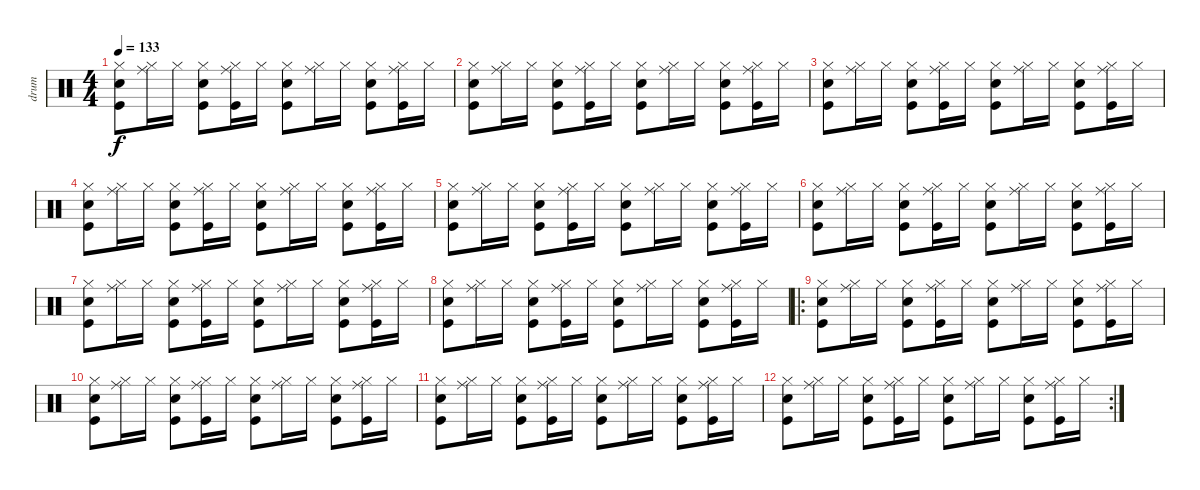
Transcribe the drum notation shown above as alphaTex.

\track ("drum" "drum") {instrument percussion}
\staff {score}
\articulation defaults
\ts (4 4)
\tempo 133
\clef neutral
\ks c
("Hi-Hat (closed)" "Snare (hit) 2" "Kick (hit)").8{dy f} ("Hi-Hat (closed)" "Ride (middle)").16 "Hi-Hat (closed)".16 ("Hi-Hat (closed)" "Snare (hit) 2" "Kick (hit)").8 ("Hi-Hat (closed)" "Ride (middle)" "Kick (hit)").16 "Hi-Hat (closed)".16 ("Hi-Hat (closed)" "Snare (hit) 2" "Kick (hit)").8 ("Hi-Hat (closed)" "Ride (middle)").16 "Hi-Hat (closed)".16 ("Hi-Hat (closed)" "Snare (hit) 2" "Kick (hit)").8 ("Hi-Hat (closed)" "Ride (middle)" "Kick (hit)").16 "Hi-Hat (closed)".16 |
("Hi-Hat (closed)" "Snare (hit) 2" "Kick (hit)").8 ("Hi-Hat (closed)" "Ride (middle)").16 "Hi-Hat (closed)".16 ("Hi-Hat (closed)" "Snare (hit) 2" "Kick (hit)").8 ("Hi-Hat (closed)" "Ride (middle)" "Kick (hit)").16 "Hi-Hat (closed)".16 ("Hi-Hat (closed)" "Snare (hit) 2" "Kick (hit)").8 ("Hi-Hat (closed)" "Ride (middle)").16 "Hi-Hat (closed)".16 ("Hi-Hat (closed)" "Snare (hit) 2" "Kick (hit)").8 ("Hi-Hat (closed)" "Ride (middle)" "Kick (hit)").16 "Hi-Hat (closed)".16 |
("Hi-Hat (closed)" "Snare (hit) 2" "Kick (hit)").8 ("Hi-Hat (closed)" "Ride (middle)").16 "Hi-Hat (closed)".16 ("Hi-Hat (closed)" "Snare (hit) 2" "Kick (hit)").8 ("Hi-Hat (closed)" "Ride (middle)" "Kick (hit)").16 "Hi-Hat (closed)".16 ("Hi-Hat (closed)" "Snare (hit) 2" "Kick (hit)").8 ("Hi-Hat (closed)" "Ride (middle)").16 "Hi-Hat (closed)".16 ("Hi-Hat (closed)" "Snare (hit) 2" "Kick (hit)").8 ("Hi-Hat (closed)" "Ride (middle)" "Kick (hit)").16 "Hi-Hat (closed)".16 |
("Hi-Hat (closed)" "Snare (hit) 2" "Kick (hit)").8 ("Hi-Hat (closed)" "Ride (middle)").16 "Hi-Hat (closed)".16 ("Hi-Hat (closed)" "Snare (hit) 2" "Kick (hit)").8 ("Hi-Hat (closed)" "Ride (middle)" "Kick (hit)").16 "Hi-Hat (closed)".16 ("Hi-Hat (closed)" "Snare (hit) 2" "Kick (hit)").8 ("Hi-Hat (closed)" "Ride (middle)").16 "Hi-Hat (closed)".16 ("Hi-Hat (closed)" "Snare (hit) 2" "Kick (hit)").8 ("Hi-Hat (closed)" "Ride (middle)" "Kick (hit)").16 "Hi-Hat (closed)".16 |
("Hi-Hat (closed)" "Snare (hit) 2" "Kick (hit)").8 ("Hi-Hat (closed)" "Ride (middle)").16 "Hi-Hat (closed)".16 ("Hi-Hat (closed)" "Snare (hit) 2" "Kick (hit)").8 ("Hi-Hat (closed)" "Ride (middle)" "Kick (hit)").16 "Hi-Hat (closed)".16 ("Hi-Hat (closed)" "Snare (hit) 2" "Kick (hit)").8 ("Hi-Hat (closed)" "Ride (middle)").16 "Hi-Hat (closed)".16 ("Hi-Hat (closed)" "Snare (hit) 2" "Kick (hit)").8 ("Hi-Hat (closed)" "Ride (middle)" "Kick (hit)").16 "Hi-Hat (closed)".16 |
("Hi-Hat (closed)" "Snare (hit) 2" "Kick (hit)").8 ("Hi-Hat (closed)" "Ride (middle)").16 "Hi-Hat (closed)".16 ("Hi-Hat (closed)" "Snare (hit) 2" "Kick (hit)").8 ("Hi-Hat (closed)" "Ride (middle)" "Kick (hit)").16 "Hi-Hat (closed)".16 ("Hi-Hat (closed)" "Snare (hit) 2" "Kick (hit)").8 ("Hi-Hat (closed)" "Ride (middle)").16 "Hi-Hat (closed)".16 ("Hi-Hat (closed)" "Snare (hit) 2" "Kick (hit)").8 ("Hi-Hat (closed)" "Ride (middle)" "Kick (hit)").16 "Hi-Hat (closed)".16 |
("Hi-Hat (closed)" "Snare (hit) 2" "Kick (hit)").8 ("Hi-Hat (closed)" "Ride (middle)").16 "Hi-Hat (closed)".16 ("Hi-Hat (closed)" "Snare (hit) 2" "Kick (hit)").8 ("Hi-Hat (closed)" "Ride (middle)" "Kick (hit)").16 "Hi-Hat (closed)".16 ("Hi-Hat (closed)" "Snare (hit) 2" "Kick (hit)").8 ("Hi-Hat (closed)" "Ride (middle)").16 "Hi-Hat (closed)".16 ("Hi-Hat (closed)" "Snare (hit) 2" "Kick (hit)").8 ("Hi-Hat (closed)" "Ride (middle)" "Kick (hit)").16 "Hi-Hat (closed)".16 |
("Hi-Hat (closed)" "Snare (hit) 2" "Kick (hit)").8 ("Hi-Hat (closed)" "Ride (middle)").16 "Hi-Hat (closed)".16 ("Hi-Hat (closed)" "Snare (hit) 2" "Kick (hit)").8 ("Hi-Hat (closed)" "Ride (middle)" "Kick (hit)").16 "Hi-Hat (closed)".16 ("Hi-Hat (closed)" "Snare (hit) 2" "Kick (hit)").8 ("Hi-Hat (closed)" "Ride (middle)").16 "Hi-Hat (closed)".16 ("Hi-Hat (closed)" "Snare (hit) 2" "Kick (hit)").8 ("Hi-Hat (closed)" "Ride (middle)" "Kick (hit)").16 "Hi-Hat (closed)".16 |
\ro
("Hi-Hat (closed)" "Snare (hit) 2" "Kick (hit)").8 ("Hi-Hat (closed)" "Ride (middle)").16 "Hi-Hat (closed)".16 ("Hi-Hat (closed)" "Snare (hit) 2" "Kick (hit)").8 ("Hi-Hat (closed)" "Ride (middle)" "Kick (hit)").16 "Hi-Hat (closed)".16 ("Hi-Hat (closed)" "Snare (hit) 2" "Kick (hit)").8 ("Hi-Hat (closed)" "Ride (middle)").16 "Hi-Hat (closed)".16 ("Hi-Hat (closed)" "Snare (hit) 2" "Kick (hit)").8 ("Hi-Hat (closed)" "Ride (middle)" "Kick (hit)").16 "Hi-Hat (closed)".16 |
("Hi-Hat (closed)" "Snare (hit) 2" "Kick (hit)").8 ("Hi-Hat (closed)" "Ride (middle)").16 "Hi-Hat (closed)".16 ("Hi-Hat (closed)" "Snare (hit) 2" "Kick (hit)").8 ("Hi-Hat (closed)" "Ride (middle)" "Kick (hit)").16 "Hi-Hat (closed)".16 ("Hi-Hat (closed)" "Snare (hit) 2" "Kick (hit)").8 ("Hi-Hat (closed)" "Ride (middle)").16 "Hi-Hat (closed)".16 ("Hi-Hat (closed)" "Snare (hit) 2" "Kick (hit)").8 ("Hi-Hat (closed)" "Ride (middle)" "Kick (hit)").16 "Hi-Hat (closed)".16 |
("Hi-Hat (closed)" "Snare (hit) 2" "Kick (hit)").8 ("Hi-Hat (closed)" "Ride (middle)").16 "Hi-Hat (closed)".16 ("Hi-Hat (closed)" "Snare (hit) 2" "Kick (hit)").8 ("Hi-Hat (closed)" "Ride (middle)" "Kick (hit)").16 "Hi-Hat (closed)".16 ("Hi-Hat (closed)" "Snare (hit) 2" "Kick (hit)").8 ("Hi-Hat (closed)" "Ride (middle)").16 "Hi-Hat (closed)".16 ("Hi-Hat (closed)" "Snare (hit) 2" "Kick (hit)").8 ("Hi-Hat (closed)" "Ride (middle)" "Kick (hit)").16 "Hi-Hat (closed)".16 |
\rc 2
("Hi-Hat (closed)" "Snare (hit) 2" "Kick (hit)").8 ("Hi-Hat (closed)" "Ride (middle)").16 "Hi-Hat (closed)".16 ("Hi-Hat (closed)" "Snare (hit) 2" "Kick (hit)").8 ("Hi-Hat (closed)" "Ride (middle)" "Kick (hit)").16 "Hi-Hat (closed)".16 ("Hi-Hat (closed)" "Snare (hit) 2" "Kick (hit)").8 ("Hi-Hat (closed)" "Ride (middle)").16 "Hi-Hat (closed)".16 ("Hi-Hat (closed)" "Snare (hit) 2" "Kick (hit)").8 ("Hi-Hat (closed)" "Ride (middle)" "Kick (hit)").16 "Hi-Hat (closed)".16
